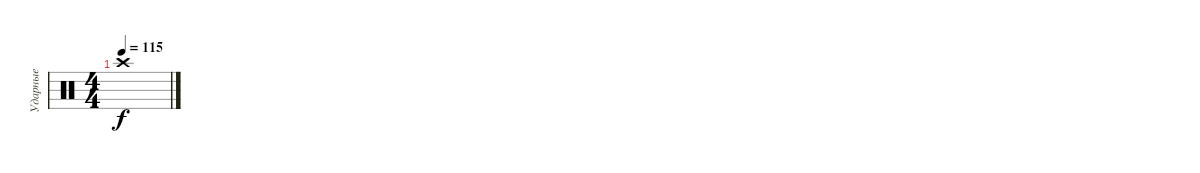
\track ("Ударные" "Ударные") {instrument percussion}
\staff {score}
\articulation defaults
\ts (4 4)
\tempo 115
\clef neutral
\ks c "Crash high (hit)".1{dy f}
